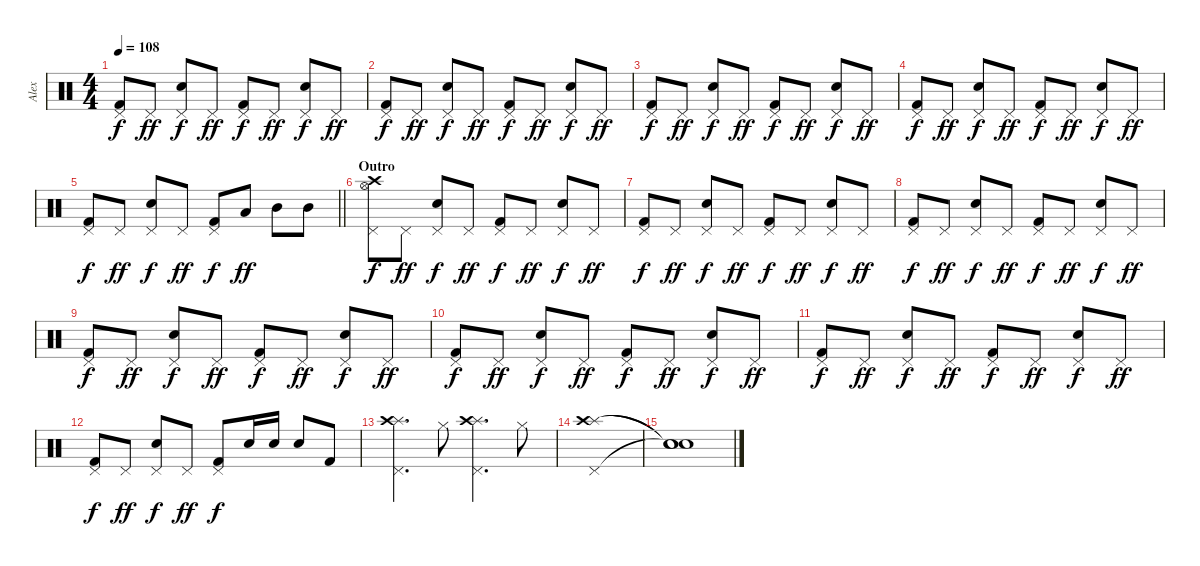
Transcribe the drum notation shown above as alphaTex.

\track ("Alex" "Alex") {instrument percussion}
\staff {score}
\articulation defaults
\ts (4 4)
\tempo 108
\clef neutral
\ks c
("Kick (hit) 2" "Pedal Hi-Hat (hit)").8{dy f} "Pedal Hi-Hat (hit)".8{dy ff} ("Electric Snare (hit)" "Pedal Hi-Hat (hit)").8{dy f} "Pedal Hi-Hat (hit)".8{dy ff} ("Kick (hit) 2" "Pedal Hi-Hat (hit)").8{dy f} "Pedal Hi-Hat (hit)".8{dy ff} ("Electric Snare (hit)" "Pedal Hi-Hat (hit)").8{dy f} "Pedal Hi-Hat (hit)".8{dy ff} |
("Kick (hit) 2" "Pedal Hi-Hat (hit)").8{dy f} "Pedal Hi-Hat (hit)".8{dy ff} ("Electric Snare (hit)" "Pedal Hi-Hat (hit)").8{dy f} "Pedal Hi-Hat (hit)".8{dy ff} ("Kick (hit) 2" "Pedal Hi-Hat (hit)").8{dy f} "Pedal Hi-Hat (hit)".8{dy ff} ("Electric Snare (hit)" "Pedal Hi-Hat (hit)").8{dy f} "Pedal Hi-Hat (hit)".8{dy ff} |
("Kick (hit) 2" "Pedal Hi-Hat (hit)").8{dy f} "Pedal Hi-Hat (hit)".8{dy ff} ("Electric Snare (hit)" "Pedal Hi-Hat (hit)").8{dy f} "Pedal Hi-Hat (hit)".8{dy ff} ("Kick (hit) 2" "Pedal Hi-Hat (hit)").8{dy f} "Pedal Hi-Hat (hit)".8{dy ff} ("Electric Snare (hit)" "Pedal Hi-Hat (hit)").8{dy f} "Pedal Hi-Hat (hit)".8{dy ff} |
("Kick (hit) 2" "Pedal Hi-Hat (hit)").8{dy f} "Pedal Hi-Hat (hit)".8{dy ff} ("Electric Snare (hit)" "Pedal Hi-Hat (hit)").8{dy f} "Pedal Hi-Hat (hit)".8{dy ff} ("Kick (hit) 2" "Pedal Hi-Hat (hit)").8{dy f} "Pedal Hi-Hat (hit)".8{dy ff} ("Electric Snare (hit)" "Pedal Hi-Hat (hit)").8{dy f} "Pedal Hi-Hat (hit)".8{dy ff} |
\barLineRight lightlight
("Kick (hit) 2" "Pedal Hi-Hat (hit)").8{dy f} "Pedal Hi-Hat (hit)".8{dy ff} ("Electric Snare (hit)" "Pedal Hi-Hat (hit)").8{dy f} "Pedal Hi-Hat (hit)".8{dy ff} ("Kick (hit) 2" "Pedal Hi-Hat (hit)").8{dy f} "Low Tom (hit)".8{dy ff} "Mid Tom (hit)".8 "Mid Tom (hit)".8 |
\section ("" "Outro")
("Crash high (hit)" "Hi-Hat (open)" "Pedal Hi-Hat (hit)").8{dy f} "Pedal Hi-Hat (hit)".8{dy ff} ("Electric Snare (hit)" "Pedal Hi-Hat (hit)").8{dy f} "Pedal Hi-Hat (hit)".8{dy ff} ("Kick (hit) 2" "Pedal Hi-Hat (hit)").8{dy f} "Pedal Hi-Hat (hit)".8{dy ff} ("Electric Snare (hit)" "Pedal Hi-Hat (hit)").8{dy f} "Pedal Hi-Hat (hit)".8{dy ff} |
("Kick (hit) 2" "Pedal Hi-Hat (hit)").8{dy f} "Pedal Hi-Hat (hit)".8{dy ff} ("Electric Snare (hit)" "Pedal Hi-Hat (hit)").8{dy f} "Pedal Hi-Hat (hit)".8{dy ff} ("Kick (hit) 2" "Pedal Hi-Hat (hit)").8{dy f} "Pedal Hi-Hat (hit)".8{dy ff} ("Electric Snare (hit)" "Pedal Hi-Hat (hit)").8{dy f} "Pedal Hi-Hat (hit)".8{dy ff} |
("Kick (hit) 2" "Pedal Hi-Hat (hit)").8{dy f} "Pedal Hi-Hat (hit)".8{dy ff} ("Electric Snare (hit)" "Pedal Hi-Hat (hit)").8{dy f} "Pedal Hi-Hat (hit)".8{dy ff} ("Kick (hit) 2" "Pedal Hi-Hat (hit)").8{dy f} "Pedal Hi-Hat (hit)".8{dy ff} ("Electric Snare (hit)" "Pedal Hi-Hat (hit)").8{dy f} "Pedal Hi-Hat (hit)".8{dy ff} |
("Kick (hit) 2" "Pedal Hi-Hat (hit)").8{dy f} "Pedal Hi-Hat (hit)".8{dy ff} ("Electric Snare (hit)" "Pedal Hi-Hat (hit)").8{dy f} "Pedal Hi-Hat (hit)".8{dy ff} ("Kick (hit) 2" "Pedal Hi-Hat (hit)").8{dy f} "Pedal Hi-Hat (hit)".8{dy ff} ("Electric Snare (hit)" "Pedal Hi-Hat (hit)").8{dy f} "Pedal Hi-Hat (hit)".8{dy ff} |
("Kick (hit) 2" "Pedal Hi-Hat (hit)").8{dy f} "Pedal Hi-Hat (hit)".8{dy ff} ("Electric Snare (hit)" "Pedal Hi-Hat (hit)").8{dy f} "Pedal Hi-Hat (hit)".8{dy ff} ("Kick (hit) 2" "Pedal Hi-Hat (hit)").8{dy f} "Pedal Hi-Hat (hit)".8{dy ff} ("Electric Snare (hit)" "Pedal Hi-Hat (hit)").8{dy f} "Pedal Hi-Hat (hit)".8{dy ff} |
("Kick (hit) 2" "Pedal Hi-Hat (hit)").8{dy f} "Pedal Hi-Hat (hit)".8{dy ff} ("Electric Snare (hit)" "Pedal Hi-Hat (hit)").8{dy f} "Pedal Hi-Hat (hit)".8{dy ff} ("Kick (hit) 2" "Pedal Hi-Hat (hit)").8{dy f} "Pedal Hi-Hat (hit)".8{dy ff} ("Electric Snare (hit)" "Pedal Hi-Hat (hit)").8{dy f} "Pedal Hi-Hat (hit)".8{dy ff} |
("Kick (hit) 2" "Pedal Hi-Hat (hit)").8{dy f} "Pedal Hi-Hat (hit)".8{dy ff} ("Electric Snare (hit)" "Pedal Hi-Hat (hit)").8{dy f} "Pedal Hi-Hat (hit)".8{dy ff} ("Kick (hit) 2" "Pedal Hi-Hat (hit)").8{dy f} "Snare (hit) 2".16 "Snare (hit) 2".16 "Snare (hit) 2".8 "Kick (hit) 2".8 |
("Splash (hit)" "Crash high (hit)" "Pedal Hi-Hat (hit)").4{d} "Hi-Hat (closed)".8 ("Splash (hit)" "Crash high (hit)" "Pedal Hi-Hat (hit)").4{d} "Hi-Hat (closed)".8 |
("Splash (hit)" "Crash high (hit)" "Pedal Hi-Hat (hit)").1 |
("Snare (hit)"{t} "Snare (hit)"{t} "Snare (hit)"{t}).1
